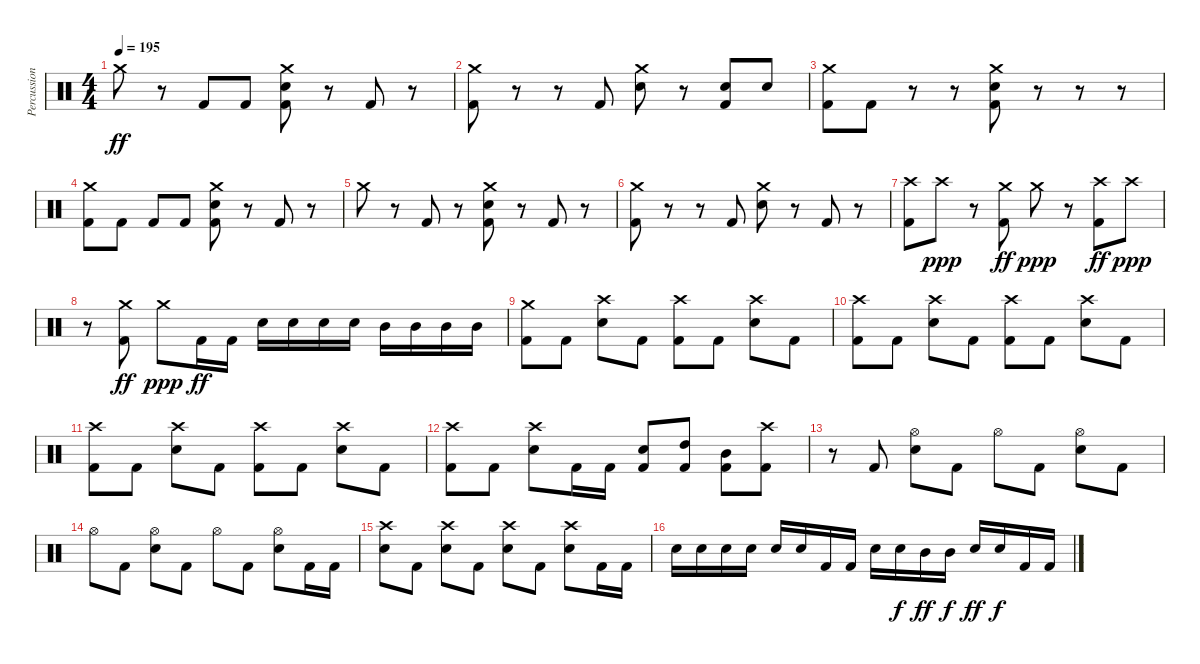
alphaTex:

\track ("Percussion" "Percussion") {instrument percussion}
\staff {score}
\articulation defaults
\ts (4 4)
\tempo 195
\clef neutral
\ks c "Crash medium (hit)".8{dy ff}
r.8 "Kick (hit) 2".8 "Kick (hit) 2".8 ("Crash medium (hit)" "Electric Snare (hit)" "Kick (hit) 2").8 r.8 "Kick (hit) 2".8 r.8 |
("Crash medium (hit)" "Kick (hit) 2").8 r.8 r.8 "Kick (hit) 2".8 ("Crash medium (hit)" "Electric Snare (hit)").8 r.8 ("Electric Snare (hit)" "Kick (hit) 2").8 "Electric Snare (hit)".8 |
("Crash medium (hit)" "Kick (hit) 2").8 "Kick (hit) 2".8 r.8 r.8 ("Crash medium (hit)" "Electric Snare (hit)" "Kick (hit) 2").8 r.8 r.8 r.8 |
("Crash medium (hit)" "Kick (hit) 2").8 "Kick (hit) 2".8 "Kick (hit) 2".8 "Kick (hit) 2".8 ("Crash medium (hit)" "Electric Snare (hit)" "Kick (hit) 2").8 r.8 "Kick (hit) 2".8 r.8 |
"Crash medium (hit)".8 r.8 "Kick (hit) 2".8 r.8 ("Crash medium (hit)" "Electric Snare (hit)" "Kick (hit) 2").8 r.8 "Kick (hit) 2".8 r.8 |
("Crash medium (hit)" "Kick (hit) 2").8 r.8 r.8 "Kick (hit) 2".8 ("Crash medium (hit)" "Electric Snare (hit)").8 r.8 "Kick (hit) 2".8 r.8 |
("Crash high (hit)" "Kick (hit) 2").8 "Crash high (hit)".8{dy ppp} r.8 ("Crash medium (hit)" "Kick (hit) 2").8{dy ff} "Crash medium (hit)".8{dy ppp} r.8 ("Crash high (hit)" "Kick (hit) 2").8{dy ff} "Crash high (hit)".8{dy ppp} |
r.8 ("Crash medium (hit)" "Kick (hit) 2").8{dy ff} "Crash medium (hit)".8{dy ppp} "Kick (hit) 2".16{dy ff} "Kick (hit) 2".16 "Electric Snare (hit)".16 "Electric Snare (hit)".16 "Electric Snare (hit)".16 "Electric Snare (hit)".16 "Mid Tom (hit)".16 "Mid Tom (hit)".16 "Mid Tom (hit)".16 "Mid Tom (hit)".16 |
("Crash medium (hit)" "Kick (hit) 2").8 "Kick (hit) 2".8 ("Crash high (hit)" "Electric Snare (hit)").8 "Kick (hit) 2".8 ("Crash high (hit)" "Kick (hit) 2").8 "Kick (hit) 2".8 ("Crash high (hit)" "Electric Snare (hit)").8 "Kick (hit) 2".8 |
("Crash high (hit)" "Kick (hit) 2").8 "Kick (hit) 2".8 ("Crash high (hit)" "Electric Snare (hit)").8 "Kick (hit) 2".8 ("Crash high (hit)" "Kick (hit) 2").8 "Kick (hit) 2".8 ("Crash high (hit)" "Electric Snare (hit)").8 "Kick (hit) 2".8 |
("Crash high (hit)" "Kick (hit) 2").8 "Kick (hit) 2".8 ("Crash high (hit)" "Electric Snare (hit)").8 "Kick (hit) 2".8 ("Crash high (hit)" "Kick (hit) 2").8 "Kick (hit) 2".8 ("Crash high (hit)" "Electric Snare (hit)").8 "Kick (hit) 2".8 |
("Crash high (hit)" "Kick (hit) 2").8 "Kick (hit) 2".8 ("Crash high (hit)" "Electric Snare (hit)").8 "Kick (hit) 2".16 "Kick (hit) 2".16 ("Electric Snare (hit)" "Kick (hit) 2").8 ("High Tom (hit)" "Kick (hit) 2").8 ("Mid Tom (hit)" "Kick (hit) 2").8 ("Crash high (hit)" "Kick (hit) 2").8 |
r.8 "Kick (hit) 2".8 ("Hi-Hat (open)" "Electric Snare (hit)").8 "Kick (hit) 2".8 "Hi-Hat (open)".8 "Kick (hit) 2".8 ("Hi-Hat (open)" "Electric Snare (hit)").8 "Kick (hit) 2".8 |
"Hi-Hat (open)".8 "Kick (hit) 2".8 ("Hi-Hat (open)" "Electric Snare (hit)").8 "Kick (hit) 2".8 "Hi-Hat (open)".8 "Kick (hit) 2".8 ("Hi-Hat (open)" "Electric Snare (hit)").8 "Kick (hit) 2".16 "Kick (hit) 2".16 |
("Crash high (hit)" "Electric Snare (hit)").8 "Kick (hit) 2".8 ("Crash high (hit)" "Electric Snare (hit)").8 "Kick (hit) 2".8 ("Crash high (hit)" "Electric Snare (hit)").8 "Kick (hit) 2".8 ("Crash high (hit)" "Electric Snare (hit)").8 "Kick (hit) 2".16 "Kick (hit) 2".16 |
"Electric Snare (hit)".16 "Electric Snare (hit)".16 "Electric Snare (hit)".16 "Electric Snare (hit)".16 "Electric Snare (hit)".16 "Electric Snare (hit)".16 "Kick (hit) 2".16 "Kick (hit) 2".16 "Electric Snare (hit)".16 "Electric Snare (hit)".16{dy f} "Mid Tom (hit)".16{dy ff} "Mid Tom (hit)".16{dy f} "Electric Snare (hit)".16{dy ff} "Electric Snare (hit)".16{dy f} "Kick (hit) 2".16 "Kick (hit) 2".16
